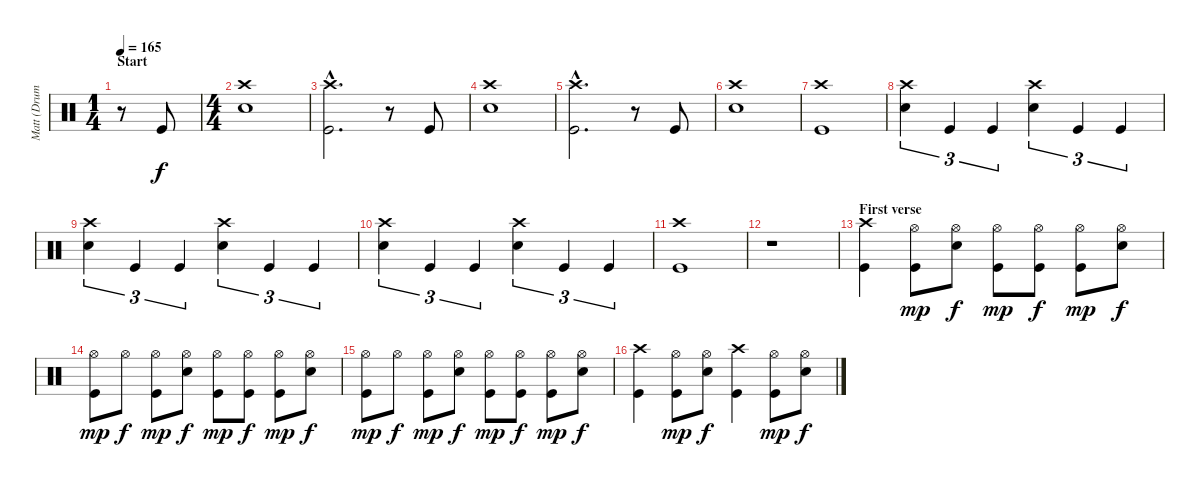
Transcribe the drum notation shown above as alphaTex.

\track ("Matt (Drums)" "Matt (Drum") {instrument percussion}
\staff {score}
\articulation defaults
\ts (1 4)
\section ("" "Start")
\tempo 165
\clef neutral
\ks c
r.8{dy f} "Kick (hit)".8 |
\ts (4 4)
("Crash high (hit)" "Electric Snare (hit)").1 |
("Crash high (hit)"{hac} "Kick (hit)"{hac}).2{d} r.8 "Kick (hit)".8 |
("Crash high (hit)" "Electric Snare (hit)").1 |
("Crash high (hit)"{hac} "Kick (hit)"{hac}).2{d} r.8 "Kick (hit)".8 |
("Crash high (hit)" "Electric Snare (hit)").1 |
("Crash high (hit)" "Kick (hit)").1 |
("Crash high (hit)" "Electric Snare (hit)").4{tu (3 2)} "Kick (hit)".4{tu (3 2)} "Kick (hit)".4{tu (3 2)} ("Crash high (hit)" "Electric Snare (hit)").4{tu (3 2)} "Kick (hit)".4{tu (3 2)} "Kick (hit)".4{tu (3 2)} |
("Crash high (hit)" "Electric Snare (hit)").4{tu (3 2)} "Kick (hit)".4{tu (3 2)} "Kick (hit)".4{tu (3 2)} ("Crash high (hit)" "Electric Snare (hit)").4{tu (3 2)} "Kick (hit)".4{tu (3 2)} "Kick (hit)".4{tu (3 2)} |
("Crash high (hit)" "Electric Snare (hit)").4{tu (3 2)} "Kick (hit)".4{tu (3 2)} "Kick (hit)".4{tu (3 2)} ("Crash high (hit)" "Electric Snare (hit)").4{tu (3 2)} "Kick (hit)".4{tu (3 2)} "Kick (hit)".4{tu (3 2)} |
("Crash high (hit)" "Kick (hit)").1 |
r.1 |
\section ("" "First verse")
("Crash high (hit)" "Kick (hit)").4 ("Hi-Hat (open)" "Kick (hit)").8{dy mp} ("Hi-Hat (open)" "Electric Snare (hit)").8{dy f} ("Hi-Hat (open)" "Kick (hit)").8{dy mp} ("Hi-Hat (open)" "Kick (hit)").8{dy f} ("Hi-Hat (open)" "Kick (hit)").8{dy mp} ("Hi-Hat (open)" "Electric Snare (hit)").8{dy f} |
("Hi-Hat (open)" "Kick (hit)").8{dy mp} "Hi-Hat (open)".8{dy f} ("Hi-Hat (open)" "Kick (hit)").8{dy mp} ("Hi-Hat (open)" "Electric Snare (hit)").8{dy f} ("Hi-Hat (open)" "Kick (hit)").8{dy mp} ("Hi-Hat (open)" "Kick (hit)").8{dy f} ("Hi-Hat (open)" "Kick (hit)").8{dy mp} ("Hi-Hat (open)" "Electric Snare (hit)").8{dy f} |
("Hi-Hat (open)" "Kick (hit)").8{dy mp} "Hi-Hat (open)".8{dy f} ("Hi-Hat (open)" "Kick (hit)").8{dy mp} ("Hi-Hat (open)" "Electric Snare (hit)").8{dy f} ("Hi-Hat (open)" "Kick (hit)").8{dy mp} ("Hi-Hat (open)" "Kick (hit)").8{dy f} ("Hi-Hat (open)" "Kick (hit)").8{dy mp} ("Hi-Hat (open)" "Electric Snare (hit)").8{dy f} |
("Crash high (hit)" "Kick (hit)").4 ("Hi-Hat (open)" "Kick (hit)").8{dy mp} ("Hi-Hat (open)" "Electric Snare (hit)").8{dy f} ("Crash high (hit)" "Kick (hit)").4 ("Hi-Hat (open)" "Kick (hit)").8{dy mp} ("Hi-Hat (open)" "Electric Snare (hit)").8{dy f}
